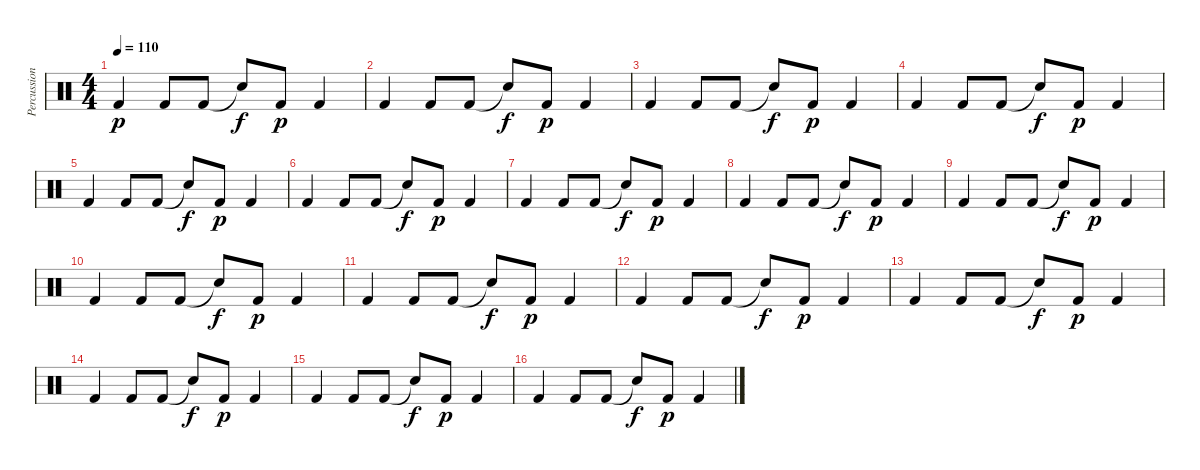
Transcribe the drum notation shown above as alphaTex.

\track ("Percussions" "Percussion") {instrument percussion}
\staff {score}
\articulation defaults
\ts (4 4)
\tempo 110
\clef neutral
\ks c "Kick (hit) 2".4{dy p} "Kick (hit) 2".8 "Kick (hit) 2".8 "Snare (hit)"{t}.8{dy f} "Kick (hit) 2".8{dy p} "Kick (hit) 2".4
|
"Kick (hit) 2".4 "Kick (hit) 2".8 "Kick (hit) 2".8 "Snare (hit)"{t}.8{dy f} "Kick (hit) 2".8{dy p} "Kick (hit) 2".4 |
"Kick (hit) 2".4 "Kick (hit) 2".8 "Kick (hit) 2".8 "Snare (hit)"{t}.8{dy f} "Kick (hit) 2".8{dy p} "Kick (hit) 2".4 |
"Kick (hit) 2".4 "Kick (hit) 2".8 "Kick (hit) 2".8 "Snare (hit)"{t}.8{dy f} "Kick (hit) 2".8{dy p} "Kick (hit) 2".4 |
"Kick (hit) 2".4 "Kick (hit) 2".8 "Kick (hit) 2".8 "Snare (hit)"{t}.8{dy f} "Kick (hit) 2".8{dy p} "Kick (hit) 2".4 |
"Kick (hit) 2".4 "Kick (hit) 2".8 "Kick (hit) 2".8 "Snare (hit)"{t}.8{dy f} "Kick (hit) 2".8{dy p} "Kick (hit) 2".4 |
"Kick (hit) 2".4 "Kick (hit) 2".8 "Kick (hit) 2".8 "Snare (hit)"{t}.8{dy f} "Kick (hit) 2".8{dy p} "Kick (hit) 2".4 |
"Kick (hit) 2".4 "Kick (hit) 2".8 "Kick (hit) 2".8 "Snare (hit)"{t}.8{dy f} "Kick (hit) 2".8{dy p} "Kick (hit) 2".4 |
"Kick (hit) 2".4 "Kick (hit) 2".8 "Kick (hit) 2".8 "Snare (hit)"{t}.8{dy f} "Kick (hit) 2".8{dy p} "Kick (hit) 2".4 |
"Kick (hit) 2".4 "Kick (hit) 2".8 "Kick (hit) 2".8 "Snare (hit)"{t}.8{dy f} "Kick (hit) 2".8{dy p} "Kick (hit) 2".4 |
"Kick (hit) 2".4 "Kick (hit) 2".8 "Kick (hit) 2".8 "Snare (hit)"{t}.8{dy f} "Kick (hit) 2".8{dy p} "Kick (hit) 2".4 |
"Kick (hit) 2".4 "Kick (hit) 2".8 "Kick (hit) 2".8 "Snare (hit)"{t}.8{dy f} "Kick (hit) 2".8{dy p} "Kick (hit) 2".4 |
"Kick (hit) 2".4 "Kick (hit) 2".8 "Kick (hit) 2".8 "Snare (hit)"{t}.8{dy f} "Kick (hit) 2".8{dy p} "Kick (hit) 2".4 |
"Kick (hit) 2".4 "Kick (hit) 2".8 "Kick (hit) 2".8 "Snare (hit)"{t}.8{dy f} "Kick (hit) 2".8{dy p} "Kick (hit) 2".4 |
"Kick (hit) 2".4 "Kick (hit) 2".8 "Kick (hit) 2".8 "Snare (hit)"{t}.8{dy f} "Kick (hit) 2".8{dy p} "Kick (hit) 2".4 |
"Kick (hit) 2".4 "Kick (hit) 2".8 "Kick (hit) 2".8 "Snare (hit)"{t}.8{dy f} "Kick (hit) 2".8{dy p} "Kick (hit) 2".4
